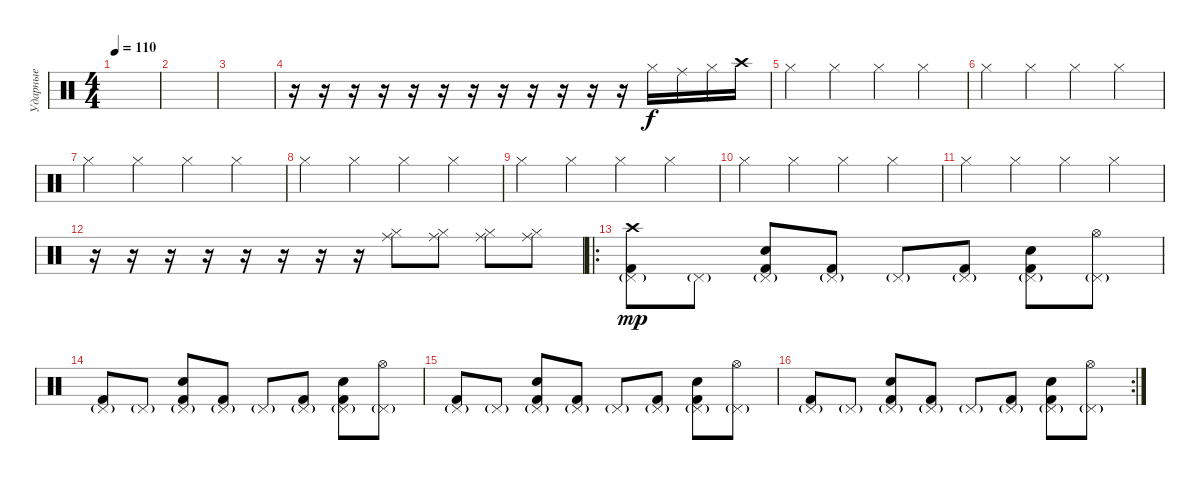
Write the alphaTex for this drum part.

\track ("Ударные" "Ударные") {instrument percussion}
\staff {score}
\articulation defaults
\ts (4 4)
\tempo 110
\clef neutral
\ks c
|
|
|
r.16 r.16 r.16 r.16 r.16 r.16 r.16 r.16 r.16 r.16 r.16 r.16 "Hi-Hat (closed)".16 "Ride (middle)".16 "Hi-Hat (closed)".16 "Crash high (hit)".16 |
"Hi-Hat (closed)".4 "Hi-Hat (closed)".4 "Hi-Hat (closed)".4 "Hi-Hat (closed)".4 |
"Hi-Hat (closed)".4 "Hi-Hat (closed)".4 "Hi-Hat (closed)".4 "Hi-Hat (closed)".4 |
"Hi-Hat (closed)".4 "Hi-Hat (closed)".4 "Hi-Hat (closed)".4 "Hi-Hat (closed)".4 |
"Hi-Hat (closed)".4 "Hi-Hat (closed)".4 "Hi-Hat (closed)".4 "Hi-Hat (closed)".4 |
"Hi-Hat (closed)".4 "Hi-Hat (closed)".4 "Hi-Hat (closed)".4 "Hi-Hat (closed)".4 |
"Hi-Hat (closed)".4 "Hi-Hat (closed)".4 "Hi-Hat (closed)".4 "Hi-Hat (closed)".4 |
"Hi-Hat (closed)".4 "Hi-Hat (closed)".4 "Hi-Hat (closed)".4 "Hi-Hat (closed)".4 |
r.16 r.16 r.16 r.16 r.16 r.16 r.16 r.16 ("Ride (middle)" "Hi-Hat (closed)").8 ("Ride (middle)" "Hi-Hat (closed)").8 ("Ride (middle)" "Hi-Hat (closed)").8 ("Ride (middle)" "Hi-Hat (closed)").8 |
\ro
("Crash high (hit)" "Kick (hit) 2" "Pedal Hi-Hat (hit)"{g}).8{dy mp} "Pedal Hi-Hat (hit)"{g}.8 ("Snare (hit) 2" "Kick (hit) 2" "Pedal Hi-Hat (hit)"{g}).8 ("Kick (hit) 2" "Pedal Hi-Hat (hit)"{g}).8 "Pedal Hi-Hat (hit)"{g}.8 ("Kick (hit) 2" "Pedal Hi-Hat (hit)"{g}).8 ("Snare (hit) 2" "Kick (hit) 2" "Pedal Hi-Hat (hit)"{g}).8 ("Hi-Hat (open)" "Pedal Hi-Hat (hit)"{g}).8 |
("Kick (hit) 2" "Pedal Hi-Hat (hit)"{g}).8 "Pedal Hi-Hat (hit)"{g}.8 ("Snare (hit) 2" "Kick (hit) 2" "Pedal Hi-Hat (hit)"{g}).8 ("Kick (hit) 2" "Pedal Hi-Hat (hit)"{g}).8 "Pedal Hi-Hat (hit)"{g}.8 ("Kick (hit) 2" "Pedal Hi-Hat (hit)"{g}).8 ("Snare (hit) 2" "Kick (hit) 2" "Pedal Hi-Hat (hit)"{g}).8 ("Hi-Hat (open)" "Pedal Hi-Hat (hit)"{g}).8 |
("Kick (hit) 2" "Pedal Hi-Hat (hit)"{g}).8 "Pedal Hi-Hat (hit)"{g}.8 ("Snare (hit) 2" "Kick (hit) 2" "Pedal Hi-Hat (hit)"{g}).8 ("Kick (hit) 2" "Pedal Hi-Hat (hit)"{g}).8 "Pedal Hi-Hat (hit)"{g}.8 ("Kick (hit) 2" "Pedal Hi-Hat (hit)"{g}).8 ("Snare (hit) 2" "Kick (hit) 2" "Pedal Hi-Hat (hit)"{g}).8 ("Hi-Hat (open)" "Pedal Hi-Hat (hit)"{g}).8 |
\rc 2
("Kick (hit) 2" "Pedal Hi-Hat (hit)"{g}).8 "Pedal Hi-Hat (hit)"{g}.8 ("Snare (hit) 2" "Kick (hit) 2" "Pedal Hi-Hat (hit)"{g}).8 ("Kick (hit) 2" "Pedal Hi-Hat (hit)"{g}).8 "Pedal Hi-Hat (hit)"{g}.8 ("Kick (hit) 2" "Pedal Hi-Hat (hit)"{g}).8 ("Snare (hit) 2" "Kick (hit) 2" "Pedal Hi-Hat (hit)"{g}).8 ("Hi-Hat (open)" "Pedal Hi-Hat (hit)"{g}).8
